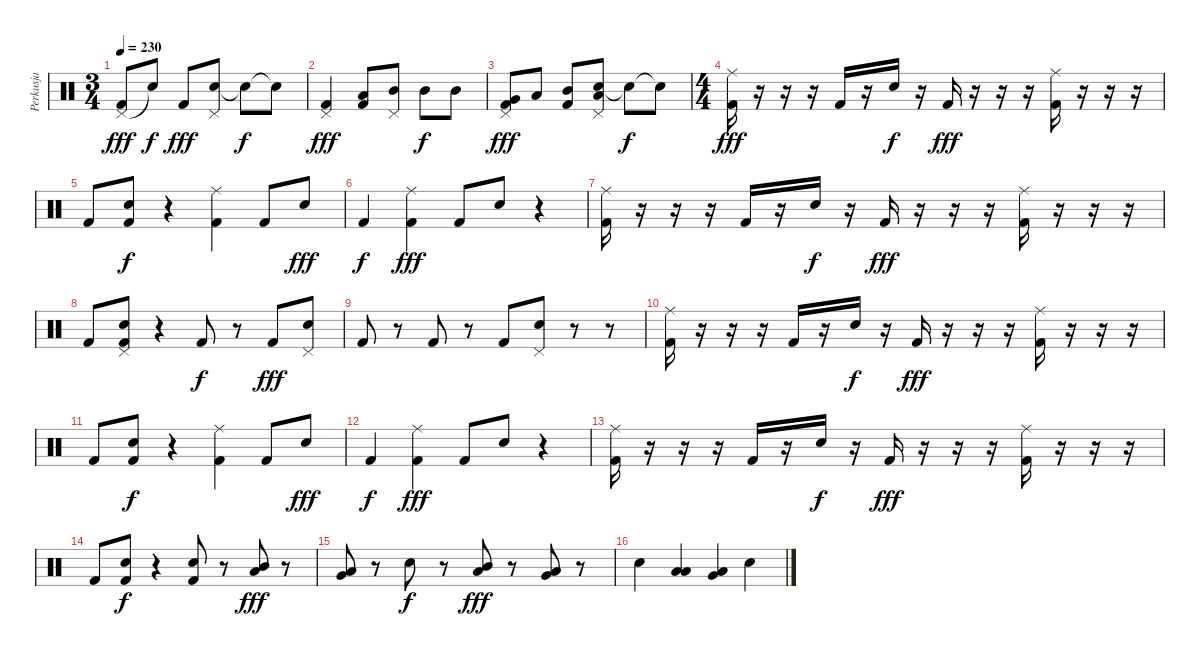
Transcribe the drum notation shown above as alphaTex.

\track ("Perkusja" "Perkusja") {instrument percussion}
\staff {score}
\articulation defaults
\ts (3 4)
\tempo 230
\clef neutral
\ks c
("Pedal Hi-Hat (hit)" "Kick (hit) 2").8{dy fff} "Snare (hit)"{t}.8{dy f} "Kick (hit) 2".8{dy fff} ("Snare (hit) 2" "Pedal Hi-Hat (hit)").8 "Snare (hit)"{t}.8{dy f} "Snare (hit)"{t}.8 |
("Pedal Hi-Hat (hit)" "Kick (hit) 2").4{dy fff} ("Low Tom (hit)" "Kick (hit) 2").8 ("Mid Tom (hit)" "Pedal Hi-Hat (hit)").8 "Mid Tom (hit)".8{dy f} "Mid Tom (hit)".8 |
("Very Low Tom (hit)" "Pedal Hi-Hat (hit)" "Kick (hit) 2").8{dy fff} "Low Tom (hit)".8 ("Mid Tom (hit)" "Kick (hit) 2").8 ("Snare (hit) 2" "Low Tom (hit)" "Pedal Hi-Hat (hit)").8 "Snare (hit)"{t}.8{dy f} "Snare (hit)"{t}.8 |
\ts (4 4)
("Ride (middle)" "Kick (hit) 2").16{dy fff} r.16 r.16 r.16 "Kick (hit) 2".16 r.16 "Snare (hit) 2".16{dy f} r.16 "Kick (hit) 2".16{dy fff} r.16 r.16 r.16 ("Ride (middle)" "Kick (hit) 2").16 r.16 r.16 r.16 |
"Kick (hit) 2".8 ("Snare (hit) 2" "Kick (hit) 2").8{dy f} r.4 ("Ride (middle)" "Kick (hit) 2").4 "Kick (hit) 2".8 "Snare (hit) 2".8{dy fff} |
"Kick (hit) 2".4{dy f} ("Ride (middle)" "Kick (hit) 2").4{dy fff} "Kick (hit) 2".8 "Snare (hit) 2".8 r.4 |
("Ride (middle)" "Kick (hit) 2").16 r.16 r.16 r.16 "Kick (hit) 2".16 r.16 "Snare (hit) 2".16{dy f} r.16 "Kick (hit) 2".16{dy fff} r.16 r.16 r.16 ("Ride (middle)" "Kick (hit) 2").16 r.16 r.16 r.16 |
"Kick (hit) 2".8 ("Snare (hit) 2" "Pedal Hi-Hat (hit)" "Kick (hit) 2").8 r.4 "Kick (hit) 2".8{dy f} r.8 "Kick (hit) 2".8{dy fff} ("Snare (hit) 2" "Pedal Hi-Hat (hit)").8 |
"Kick (hit) 2".8 r.8 "Kick (hit) 2".8 r.8 "Kick (hit) 2".8 ("Snare (hit) 2" "Pedal Hi-Hat (hit)").8 r.8 r.8 |
("Ride (middle)" "Kick (hit) 2").16 r.16 r.16 r.16 "Kick (hit) 2".16 r.16 "Snare (hit) 2".16{dy f} r.16 "Kick (hit) 2".16{dy fff} r.16 r.16 r.16 ("Ride (middle)" "Kick (hit) 2").16 r.16 r.16 r.16 |
"Kick (hit) 2".8 ("Snare (hit) 2" "Kick (hit) 2").8{dy f} r.4 ("Ride (middle)" "Kick (hit) 2").4 "Kick (hit) 2".8 "Snare (hit) 2".8{dy fff} |
"Kick (hit) 2".4{dy f} ("Ride (middle)" "Kick (hit) 2").4{dy fff} "Kick (hit) 2".8 "Snare (hit) 2".8 r.4 |
("Ride (middle)" "Kick (hit) 2").16 r.16 r.16 r.16 "Kick (hit) 2".16 r.16 "Snare (hit) 2".16{dy f} r.16 "Kick (hit) 2".16{dy fff} r.16 r.16 r.16 ("Ride (middle)" "Kick (hit) 2").16 r.16 r.16 r.16 |
"Kick (hit) 2".8 ("Snare (hit) 2" "Kick (hit) 2").8{dy f} r.4 ("Snare (hit) 2" "Kick (hit) 2").8 r.8 ("Low Tom (hit)" "Mid Tom (hit)").8{dy fff} r.8 |
("Low Tom (hit)" "Very Low Tom (hit)").8 r.8 "Snare (hit) 2".8{dy f} r.8 ("Low Tom (hit)" "Mid Tom (hit)").8{dy fff} r.8 ("Low Tom (hit)" "Very Low Tom (hit)").8 r.8 |
"Snare (hit) 2".4 ("Low Tom (hit)" "Low Tom (hit)").4 ("Low Tom (hit)" "Very Low Tom (hit)").4 "Snare (hit) 2".4
